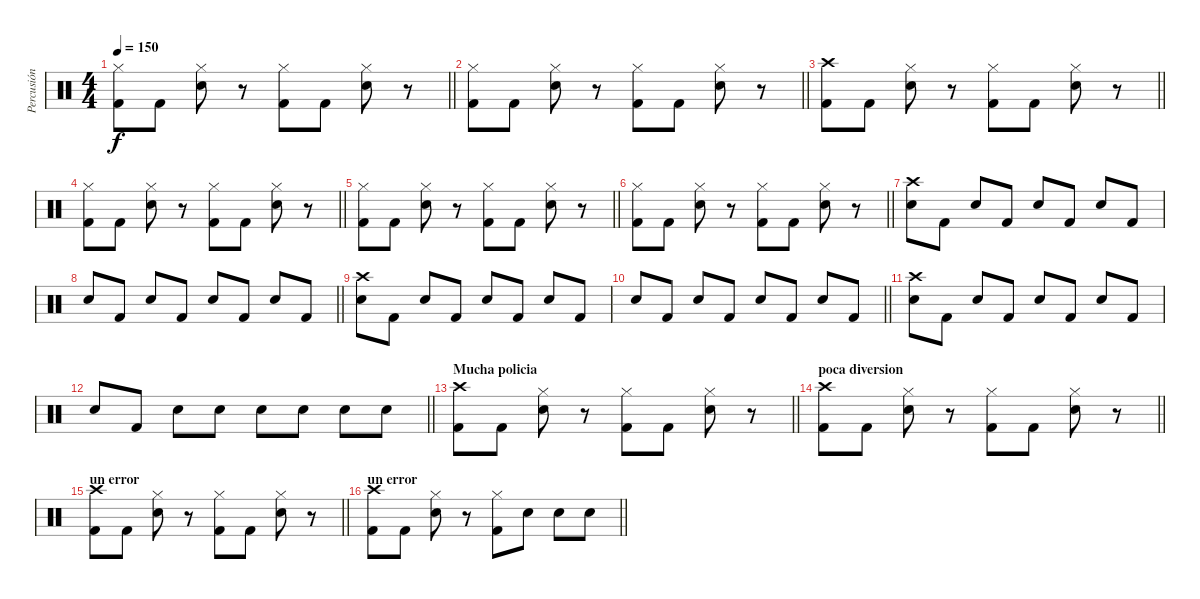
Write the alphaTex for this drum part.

\track ("Percusión" "Percusión") {instrument percussion}
\staff {score}
\articulation defaults
\ts (4 4)
\tempo 150
\clef neutral
\barLineRight lightlight
\ks c
("Hi-Hat (closed)" "Kick (hit) 2").8{dy f} "Kick (hit) 2".8 ("Hi-Hat (closed)" "Electric Snare (hit)").8 r.8 ("Hi-Hat (closed)" "Kick (hit) 2").8 "Kick (hit) 2".8 ("Hi-Hat (closed)" "Electric Snare (hit)").8 r.8 |
\barLineRight lightlight
("Hi-Hat (closed)" "Kick (hit) 2").8 "Kick (hit) 2".8 ("Hi-Hat (closed)" "Electric Snare (hit)").8 r.8 ("Hi-Hat (closed)" "Kick (hit) 2").8 "Kick (hit) 2".8 ("Hi-Hat (closed)" "Electric Snare (hit)").8 r.8 |
\barLineRight lightlight
("Crash high (hit)" "Kick (hit) 2").8 "Kick (hit) 2".8 ("Hi-Hat (closed)" "Electric Snare (hit)").8 r.8 ("Hi-Hat (closed)" "Kick (hit) 2").8 "Kick (hit) 2".8 ("Hi-Hat (closed)" "Electric Snare (hit)").8 r.8 |
\barLineRight lightlight
("Hi-Hat (closed)" "Kick (hit) 2").8 "Kick (hit) 2".8 ("Hi-Hat (closed)" "Electric Snare (hit)").8 r.8 ("Hi-Hat (closed)" "Kick (hit) 2").8 "Kick (hit) 2".8 ("Hi-Hat (closed)" "Electric Snare (hit)").8 r.8 |
\barLineRight lightlight
("Hi-Hat (closed)" "Kick (hit) 2").8 "Kick (hit) 2".8 ("Hi-Hat (closed)" "Electric Snare (hit)").8 r.8 ("Hi-Hat (closed)" "Kick (hit) 2").8 "Kick (hit) 2".8 ("Hi-Hat (closed)" "Electric Snare (hit)").8 r.8 |
\barLineRight lightlight
("Hi-Hat (closed)" "Kick (hit) 2").8 "Kick (hit) 2".8 ("Hi-Hat (closed)" "Electric Snare (hit)").8 r.8 ("Hi-Hat (closed)" "Kick (hit) 2").8 "Kick (hit) 2".8 ("Hi-Hat (closed)" "Electric Snare (hit)").8 r.8 |
("Crash high (hit)" "Electric Snare (hit)").8 "Kick (hit) 2".8 "Electric Snare (hit)".8 "Kick (hit) 2".8 "Electric Snare (hit)".8 "Kick (hit) 2".8 "Electric Snare (hit)".8 "Kick (hit) 2".8 |
\barLineRight lightlight "Electric Snare (hit)".8 "Kick (hit) 2".8 "Electric Snare (hit)".8 "Kick (hit) 2".8 "Electric Snare (hit)".8 "Kick (hit) 2".8 "Electric Snare (hit)".8 "Kick (hit) 2".8
|
("Crash high (hit)" "Electric Snare (hit)").8 "Kick (hit) 2".8 "Electric Snare (hit)".8 "Kick (hit) 2".8 "Electric Snare (hit)".8 "Kick (hit) 2".8 "Electric Snare (hit)".8 "Kick (hit) 2".8 |
\barLineRight lightlight "Electric Snare (hit)".8 "Kick (hit) 2".8 "Electric Snare (hit)".8 "Kick (hit) 2".8 "Electric Snare (hit)".8 "Kick (hit) 2".8 "Electric Snare (hit)".8 "Kick (hit) 2".8
|
("Crash high (hit)" "Electric Snare (hit)").8 "Kick (hit) 2".8 "Electric Snare (hit)".8 "Kick (hit) 2".8 "Electric Snare (hit)".8 "Kick (hit) 2".8 "Electric Snare (hit)".8 "Kick (hit) 2".8 |
\barLineRight lightlight "Electric Snare (hit)".8 "Kick (hit) 2".8 "Electric Snare (hit)".8 "Electric Snare (hit)".8 "Electric Snare (hit)".8 "Electric Snare (hit)".8 "Electric Snare (hit)".8 "Electric Snare (hit)".8
|
\section ("" "Mucha policia")
\barLineRight lightlight
("Crash high (hit)" "Kick (hit) 2").8 "Kick (hit) 2".8 ("Hi-Hat (closed)" "Electric Snare (hit)").8 r.8 ("Hi-Hat (closed)" "Kick (hit) 2").8 "Kick (hit) 2".8 ("Hi-Hat (closed)" "Electric Snare (hit)").8 r.8 |
\section ("" "poca diversion")
\barLineRight lightlight
("Crash high (hit)" "Kick (hit) 2").8 "Kick (hit) 2".8 ("Hi-Hat (closed)" "Electric Snare (hit)").8 r.8 ("Hi-Hat (closed)" "Kick (hit) 2").8 "Kick (hit) 2".8 ("Hi-Hat (closed)" "Electric Snare (hit)").8 r.8 |
\section ("" "un error")
\barLineRight lightlight
("Crash high (hit)" "Kick (hit) 2").8 "Kick (hit) 2".8 ("Hi-Hat (closed)" "Electric Snare (hit)").8 r.8 ("Hi-Hat (closed)" "Kick (hit) 2").8 "Kick (hit) 2".8 ("Hi-Hat (closed)" "Electric Snare (hit)").8 r.8 |
\section ("" "un error")
\barLineRight lightlight
("Crash high (hit)" "Kick (hit) 2").8 "Kick (hit) 2".8 ("Hi-Hat (closed)" "Electric Snare (hit)").8 r.8 ("Hi-Hat (closed)" "Kick (hit) 2").8 "Electric Snare (hit)".8 "Electric Snare (hit)".8 "Electric Snare (hit)".8
